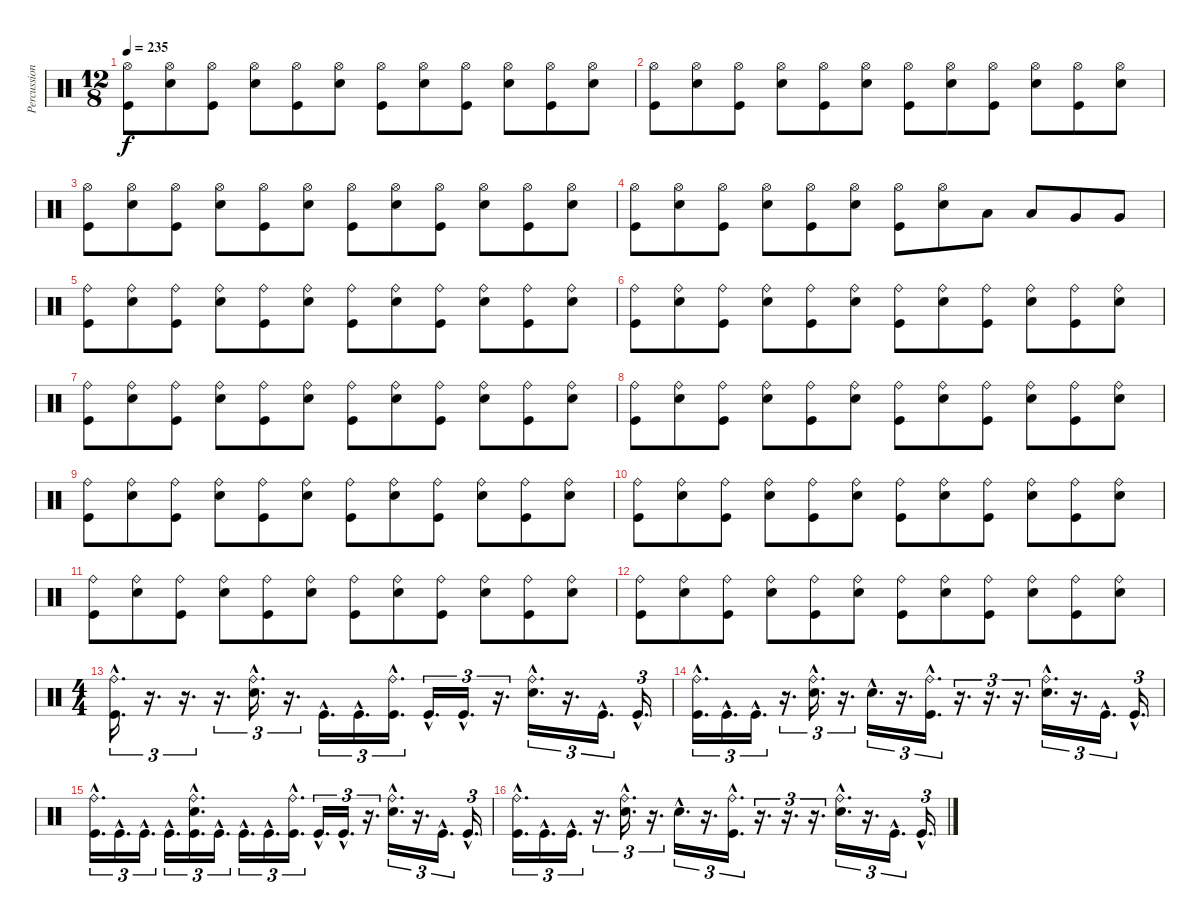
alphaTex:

\track ("Percussion" "Percussion") {instrument percussion}
\staff {score}
\articulation defaults
\ts (12 8)
\tempo 235
\clef neutral
\ks c
("Hi-Hat (open)" "Kick (hit)").8{dy f} ("Hi-Hat (open)" "Snare (hit) 2").8 ("Hi-Hat (open)" "Kick (hit)").8 ("Hi-Hat (open)" "Snare (hit) 2").8 ("Hi-Hat (open)" "Kick (hit)").8 ("Hi-Hat (open)" "Snare (hit) 2").8 ("Hi-Hat (open)" "Kick (hit)").8 ("Hi-Hat (open)" "Snare (hit) 2").8 ("Hi-Hat (open)" "Kick (hit)").8 ("Hi-Hat (open)" "Snare (hit) 2").8 ("Hi-Hat (open)" "Kick (hit)").8 ("Hi-Hat (open)" "Snare (hit) 2").8 |
("Hi-Hat (open)" "Kick (hit)").8 ("Hi-Hat (open)" "Snare (hit) 2").8 ("Hi-Hat (open)" "Kick (hit)").8 ("Hi-Hat (open)" "Snare (hit) 2").8 ("Hi-Hat (open)" "Kick (hit)").8 ("Hi-Hat (open)" "Snare (hit) 2").8 ("Hi-Hat (open)" "Kick (hit)").8 ("Hi-Hat (open)" "Snare (hit) 2").8 ("Hi-Hat (open)" "Kick (hit)").8 ("Hi-Hat (open)" "Snare (hit) 2").8 ("Hi-Hat (open)" "Kick (hit)").8 ("Hi-Hat (open)" "Snare (hit) 2").8 |
("Hi-Hat (open)" "Kick (hit)").8 ("Hi-Hat (open)" "Snare (hit) 2").8 ("Hi-Hat (open)" "Kick (hit)").8 ("Hi-Hat (open)" "Snare (hit) 2").8 ("Hi-Hat (open)" "Kick (hit)").8 ("Hi-Hat (open)" "Snare (hit) 2").8 ("Hi-Hat (open)" "Kick (hit)").8 ("Hi-Hat (open)" "Snare (hit) 2").8 ("Hi-Hat (open)" "Kick (hit)").8 ("Hi-Hat (open)" "Snare (hit) 2").8 ("Hi-Hat (open)" "Kick (hit)").8 ("Hi-Hat (open)" "Snare (hit) 2").8 |
("Hi-Hat (open)" "Kick (hit)").8 ("Hi-Hat (open)" "Snare (hit) 2").8 ("Hi-Hat (open)" "Kick (hit)").8 ("Hi-Hat (open)" "Snare (hit) 2").8 ("Hi-Hat (open)" "Kick (hit)").8 ("Hi-Hat (open)" "Snare (hit) 2").8 ("Hi-Hat (open)" "Kick (hit)").8 ("Hi-Hat (open)" "Snare (hit) 2").8 "Low Tom (hit)".8 "Low Tom (hit)".8 "Very Low Tom (hit)".8 "Very Low Tom (hit)".8 |
("Ride (bell)" "Kick (hit)").8 ("Ride (bell)" "Snare (hit) 2").8 ("Ride (bell)" "Kick (hit)").8 ("Ride (bell)" "Snare (hit) 2").8 ("Ride (bell)" "Kick (hit)").8 ("Ride (bell)" "Snare (hit) 2").8 ("Ride (bell)" "Kick (hit)").8 ("Ride (bell)" "Snare (hit) 2").8 ("Ride (bell)" "Kick (hit)").8 ("Ride (bell)" "Snare (hit) 2").8 ("Ride (bell)" "Kick (hit)").8 ("Ride (bell)" "Snare (hit) 2").8 |
("Ride (bell)" "Kick (hit)").8 ("Ride (bell)" "Snare (hit) 2").8 ("Ride (bell)" "Kick (hit)").8 ("Ride (bell)" "Snare (hit) 2").8 ("Ride (bell)" "Kick (hit)").8 ("Ride (bell)" "Snare (hit) 2").8 ("Ride (bell)" "Kick (hit)").8 ("Ride (bell)" "Snare (hit) 2").8 ("Ride (bell)" "Kick (hit)").8 ("Ride (bell)" "Snare (hit) 2").8 ("Ride (bell)" "Kick (hit)").8 ("Ride (bell)" "Snare (hit) 2").8 |
("Ride (bell)" "Kick (hit)").8 ("Ride (bell)" "Snare (hit) 2").8 ("Ride (bell)" "Kick (hit)").8 ("Ride (bell)" "Snare (hit) 2").8 ("Ride (bell)" "Kick (hit)").8 ("Ride (bell)" "Snare (hit) 2").8 ("Ride (bell)" "Kick (hit)").8 ("Ride (bell)" "Snare (hit) 2").8 ("Ride (bell)" "Kick (hit)").8 ("Ride (bell)" "Snare (hit) 2").8 ("Ride (bell)" "Kick (hit)").8 ("Ride (bell)" "Snare (hit) 2").8 |
("Ride (bell)" "Kick (hit)").8 ("Ride (bell)" "Snare (hit) 2").8 ("Ride (bell)" "Kick (hit)").8 ("Ride (bell)" "Snare (hit) 2").8 ("Ride (bell)" "Kick (hit)").8 ("Ride (bell)" "Snare (hit) 2").8 ("Ride (bell)" "Kick (hit)").8 ("Ride (bell)" "Snare (hit) 2").8 ("Ride (bell)" "Kick (hit)").8 ("Ride (bell)" "Snare (hit) 2").8 ("Ride (bell)" "Kick (hit)").8 ("Ride (bell)" "Snare (hit) 2").8 |
("Ride (bell)" "Kick (hit)").8 ("Ride (bell)" "Snare (hit) 2").8 ("Ride (bell)" "Kick (hit)").8 ("Ride (bell)" "Snare (hit) 2").8 ("Ride (bell)" "Kick (hit)").8 ("Ride (bell)" "Snare (hit) 2").8 ("Ride (bell)" "Kick (hit)").8 ("Ride (bell)" "Snare (hit) 2").8 ("Ride (bell)" "Kick (hit)").8 ("Ride (bell)" "Snare (hit) 2").8 ("Ride (bell)" "Kick (hit)").8 ("Ride (bell)" "Snare (hit) 2").8 |
("Ride (bell)" "Kick (hit)").8 ("Ride (bell)" "Snare (hit) 2").8 ("Ride (bell)" "Kick (hit)").8 ("Ride (bell)" "Snare (hit) 2").8 ("Ride (bell)" "Kick (hit)").8 ("Ride (bell)" "Snare (hit) 2").8 ("Ride (bell)" "Kick (hit)").8 ("Ride (bell)" "Snare (hit) 2").8 ("Ride (bell)" "Kick (hit)").8 ("Ride (bell)" "Snare (hit) 2").8 ("Ride (bell)" "Kick (hit)").8 ("Ride (bell)" "Snare (hit) 2").8 |
("Ride (bell)" "Kick (hit)").8 ("Ride (bell)" "Snare (hit) 2").8 ("Ride (bell)" "Kick (hit)").8 ("Ride (bell)" "Snare (hit) 2").8 ("Ride (bell)" "Kick (hit)").8 ("Ride (bell)" "Snare (hit) 2").8 ("Ride (bell)" "Kick (hit)").8 ("Ride (bell)" "Snare (hit) 2").8 ("Ride (bell)" "Kick (hit)").8 ("Ride (bell)" "Snare (hit) 2").8 ("Ride (bell)" "Kick (hit)").8 ("Ride (bell)" "Snare (hit) 2").8 |
("Ride (bell)" "Kick (hit)").8 ("Ride (bell)" "Snare (hit) 2").8 ("Ride (bell)" "Kick (hit)").8 ("Ride (bell)" "Snare (hit) 2").8 ("Ride (bell)" "Kick (hit)").8 ("Ride (bell)" "Snare (hit) 2").8 ("Ride (bell)" "Kick (hit)").8 ("Ride (bell)" "Snare (hit) 2").8 ("Ride (bell)" "Kick (hit)").8 ("Ride (bell)" "Snare (hit) 2").8 ("Ride (bell)" "Kick (hit)").8 ("Ride (bell)" "Snare (hit) 2").8 |
\ts (4 4)
("Ride (bell)"{hac} "Kick (hit)"{hac}).16{d tu (3 2)} r.16{d tu (3 2)} r.16{d tu (3 2)} r.16{d tu (3 2)} ("Ride (bell)"{hac} "Snare (hit) 2"{hac}).16{d tu (3 2)} r.16{d tu (3 2)} "Kick (hit)"{hac}.16{d tu (3 2)} "Kick (hit)"{hac}.16{d tu (3 2)} ("Ride (bell)"{hac} "Kick (hit)"{hac}).16{d tu (3 2)} "Kick (hit)"{hac}.16{d tu (3 2)} "Kick (hit)"{hac}.16{d tu (3 2)} r.16{d tu (3 2)} ("Ride (bell)"{hac} "Snare (hit) 2"{hac}).16{d tu (3 2)} r.16{d tu (3 2)} "Kick (hit)"{hac}.16{d tu (3 2)} "Kick (hit)"{hac}.16{d tu (3 2)} |
("Ride (bell)"{hac} "Kick (hit)"{hac}).16{d tu (3 2)} "Kick (hit)"{hac}.16{d tu (3 2)} "Kick (hit)"{hac}.16{d tu (3 2)} r.16{d tu (3 2)} ("Ride (bell)"{hac} "Snare (hit) 2"{hac}).16{d tu (3 2)} r.16{d tu (3 2)} "Snare (hit) 2"{hac}.16{d tu (3 2)} r.16{d tu (3 2)} ("Ride (bell)"{hac} "Kick (hit)"{hac}).16{d tu (3 2)} r.16{d tu (3 2)} r.16{d tu (3 2)} r.16{d tu (3 2)} ("Ride (bell)"{hac} "Snare (hit) 2"{hac}).16{d tu (3 2)} r.16{d tu (3 2)} "Kick (hit)"{hac}.16{d tu (3 2)} "Kick (hit)"{hac}.16{d tu (3 2)} |
("Ride (bell)"{hac} "Kick (hit)"{hac}).16{d tu (3 2)} "Kick (hit)"{hac}.16{d tu (3 2)} "Kick (hit)"{hac}.16{d tu (3 2)} "Kick (hit)"{hac}.16{d tu (3 2)} ("Ride (bell)"{hac} "Snare (hit) 2"{hac} "Kick (hit)"{hac}).16{d tu (3 2)} "Kick (hit)"{hac}.16{d tu (3 2)} "Kick (hit)"{hac}.16{d tu (3 2)} "Kick (hit)"{hac}.16{d tu (3 2)} ("Ride (bell)"{hac} "Kick (hit)"{hac}).16{d tu (3 2)} "Kick (hit)"{hac}.16{d tu (3 2)} "Kick (hit)"{hac}.16{d tu (3 2)} r.16{d tu (3 2)} ("Ride (bell)"{hac} "Snare (hit) 2"{hac}).16{d tu (3 2)} r.16{d tu (3 2)} "Kick (hit)"{hac}.16{d tu (3 2)} "Kick (hit)"{hac}.16{d tu (3 2)} |
("Ride (bell)"{hac} "Kick (hit)"{hac}).16{d tu (3 2)} "Kick (hit)"{hac}.16{d tu (3 2)} "Kick (hit)"{hac}.16{d tu (3 2)} r.16{d tu (3 2)} ("Ride (bell)"{hac} "Snare (hit) 2"{hac}).16{d tu (3 2)} r.16{d tu (3 2)} "Snare (hit) 2"{hac}.16{d tu (3 2)} r.16{d tu (3 2)} ("Ride (bell)"{hac} "Kick (hit)"{hac}).16{d tu (3 2)} r.16{d tu (3 2)} r.16{d tu (3 2)} r.16{d tu (3 2)} ("Ride (bell)"{hac} "Snare (hit) 2"{hac}).16{d tu (3 2)} r.16{d tu (3 2)} "Kick (hit)"{hac}.16{d tu (3 2)} "Kick (hit)"{hac}.16{d tu (3 2)}
